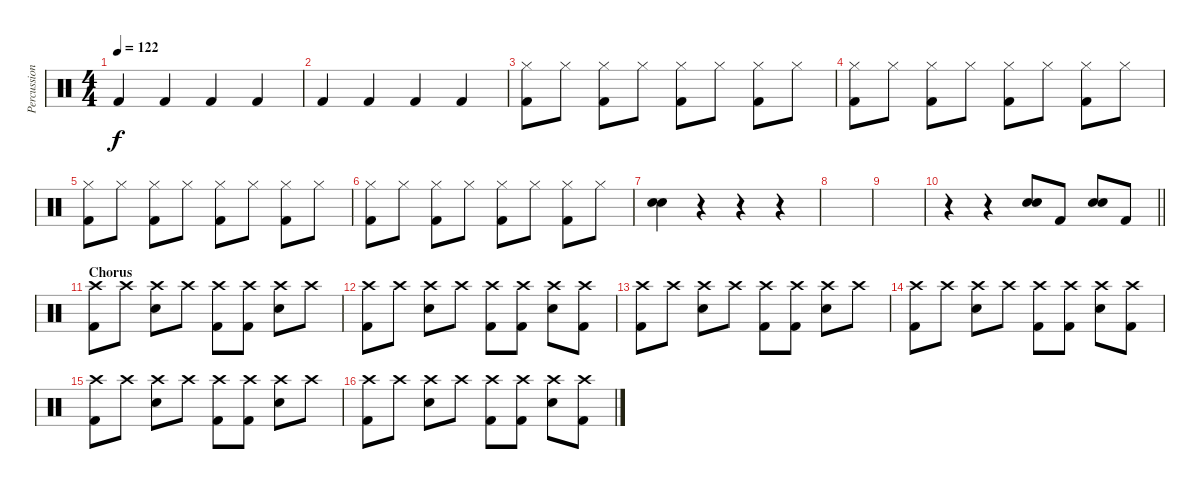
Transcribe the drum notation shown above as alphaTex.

\track ("Percussion" "Percussion") {instrument percussion}
\staff {score}
\articulation defaults
\ts (4 4)
\tempo 122
\clef neutral
\ks c "Kick (hit) 2".4{dy f} "Kick (hit) 2".4 "Kick (hit) 2".4 "Kick (hit) 2".4
|
"Kick (hit) 2".4 "Kick (hit) 2".4 "Kick (hit) 2".4 "Kick (hit) 2".4 |
("Hi-Hat (closed)" "Kick (hit) 2").8 "Hi-Hat (closed)".8 ("Hi-Hat (closed)" "Kick (hit) 2").8 "Hi-Hat (closed)".8 ("Hi-Hat (closed)" "Kick (hit) 2").8 "Hi-Hat (closed)".8 ("Hi-Hat (closed)" "Kick (hit) 2").8 "Hi-Hat (closed)".8 |
("Hi-Hat (closed)" "Kick (hit) 2").8 "Hi-Hat (closed)".8 ("Hi-Hat (closed)" "Kick (hit) 2").8 "Hi-Hat (closed)".8 ("Hi-Hat (closed)" "Kick (hit) 2").8 "Hi-Hat (closed)".8 ("Hi-Hat (closed)" "Kick (hit) 2").8 "Hi-Hat (closed)".8 |
("Hi-Hat (closed)" "Kick (hit) 2").8 "Hi-Hat (closed)".8 ("Hi-Hat (closed)" "Kick (hit) 2").8 "Hi-Hat (closed)".8 ("Hi-Hat (closed)" "Kick (hit) 2").8 "Hi-Hat (closed)".8 ("Hi-Hat (closed)" "Kick (hit) 2").8 "Hi-Hat (closed)".8 |
("Hi-Hat (closed)" "Kick (hit) 2").8 "Hi-Hat (closed)".8 ("Hi-Hat (closed)" "Kick (hit) 2").8 "Hi-Hat (closed)".8 ("Hi-Hat (closed)" "Kick (hit) 2").8 "Hi-Hat (closed)".8 ("Hi-Hat (closed)" "Kick (hit) 2").8 "Hi-Hat (closed)".8 |
("Electric Snare (hit)" "Electric Snare (hit)").4 r.4 r.4 r.4 |
|
|
\barLineRight lightlight
r.4 r.4 ("Electric Snare (hit)" "Electric Snare (hit)").8 "Kick (hit) 2".8 ("Electric Snare (hit)" "Electric Snare (hit)").8 "Kick (hit) 2".8 |
\section ("" "Chorus")
("Crash high (hit)" "Kick (hit) 2").8 "Crash high (hit)".8 ("Crash high (hit)" "Electric Snare (hit)").8 "Crash high (hit)".8 ("Crash high (hit)" "Kick (hit) 2").8 ("Crash high (hit)" "Kick (hit) 2").8 ("Crash high (hit)" "Electric Snare (hit)").8 "Crash high (hit)".8 |
("Crash high (hit)" "Kick (hit) 2").8 "Crash high (hit)".8 ("Crash high (hit)" "Electric Snare (hit)").8 "Crash high (hit)".8 ("Crash high (hit)" "Kick (hit) 2").8 ("Crash high (hit)" "Kick (hit) 2").8 ("Crash high (hit)" "Electric Snare (hit)").8 ("Crash high (hit)" "Kick (hit) 2").8 |
("Crash high (hit)" "Kick (hit) 2").8 "Crash high (hit)".8 ("Crash high (hit)" "Electric Snare (hit)").8 "Crash high (hit)".8 ("Crash high (hit)" "Kick (hit) 2").8 ("Crash high (hit)" "Kick (hit) 2").8 ("Crash high (hit)" "Electric Snare (hit)").8 "Crash high (hit)".8 |
("Crash high (hit)" "Kick (hit) 2").8 "Crash high (hit)".8 ("Crash high (hit)" "Electric Snare (hit)").8 "Crash high (hit)".8 ("Crash high (hit)" "Kick (hit) 2").8 ("Crash high (hit)" "Kick (hit) 2").8 ("Crash high (hit)" "Electric Snare (hit)").8 ("Crash high (hit)" "Kick (hit) 2").8 |
("Crash high (hit)" "Kick (hit) 2").8 "Crash high (hit)".8 ("Crash high (hit)" "Electric Snare (hit)").8 "Crash high (hit)".8 ("Crash high (hit)" "Kick (hit) 2").8 ("Crash high (hit)" "Kick (hit) 2").8 ("Crash high (hit)" "Electric Snare (hit)").8 "Crash high (hit)".8 |
("Crash high (hit)" "Kick (hit) 2").8 "Crash high (hit)".8 ("Crash high (hit)" "Electric Snare (hit)").8 "Crash high (hit)".8 ("Crash high (hit)" "Kick (hit) 2").8 ("Crash high (hit)" "Kick (hit) 2").8 ("Crash high (hit)" "Electric Snare (hit)").8 ("Crash high (hit)" "Kick (hit) 2").8
